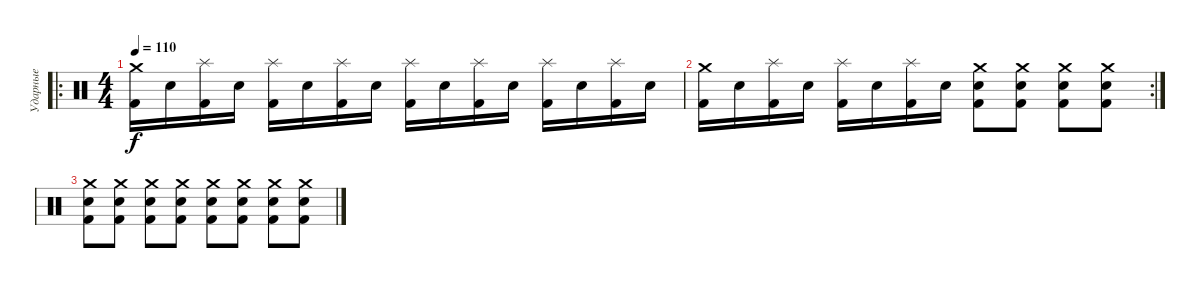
\track ("Ударные" "Ударные") {instrument percussion}
\staff {score}
\articulation defaults
\ro
\ts (4 4)
\tempo 110
\clef neutral
\ks c
("Crash medium (hit)" "Kick (hit) 2").16{dy f} "Electric Snare (hit)".16 ("Splash (hit)" "Kick (hit) 2").16 "Electric Snare (hit)".16 ("Splash (hit)" "Kick (hit) 2").16 "Electric Snare (hit)".16 ("Splash (hit)" "Kick (hit) 2").16 "Electric Snare (hit)".16 ("Splash (hit)" "Kick (hit) 2").16 "Electric Snare (hit)".16 ("Splash (hit)" "Kick (hit) 2").16 "Electric Snare (hit)".16 ("Splash (hit)" "Kick (hit) 2").16 "Electric Snare (hit)".16 ("Splash (hit)" "Kick (hit) 2").16 "Electric Snare (hit)".16 |
\rc 2
("Crash medium (hit)" "Kick (hit) 2").16 "Electric Snare (hit)".16 ("Splash (hit)" "Kick (hit) 2").16 "Electric Snare (hit)".16 ("Splash (hit)" "Kick (hit) 2").16 "Electric Snare (hit)".16 ("Splash (hit)" "Kick (hit) 2").16 "Electric Snare (hit)".16 ("Crash medium (hit)" "Electric Snare (hit)" "Kick (hit) 2").8 ("Crash medium (hit)" "Electric Snare (hit)" "Kick (hit) 2").8 ("Crash medium (hit)" "Electric Snare (hit)" "Kick (hit) 2").8 ("Crash medium (hit)" "Electric Snare (hit)" "Kick (hit) 2").8 |
("Crash medium (hit)" "Electric Snare (hit)" "Kick (hit) 2").8 ("Crash medium (hit)" "Electric Snare (hit)" "Kick (hit) 2").8 ("Crash medium (hit)" "Electric Snare (hit)" "Kick (hit) 2").8 ("Crash medium (hit)" "Electric Snare (hit)" "Kick (hit) 2").8 ("Crash medium (hit)" "Electric Snare (hit)" "Kick (hit) 2").8 ("Crash medium (hit)" "Electric Snare (hit)" "Kick (hit) 2").8 ("Crash medium (hit)" "Electric Snare (hit)" "Kick (hit) 2").8 ("Crash medium (hit)" "Electric Snare (hit)" "Kick (hit) 2").8
